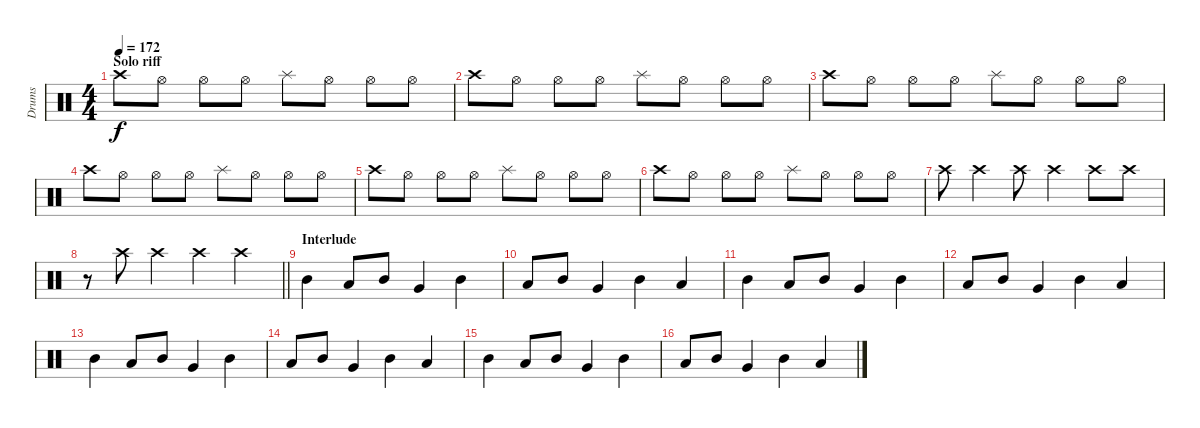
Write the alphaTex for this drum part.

\track ("Drums" "Drums") {instrument percussion}
\staff {score}
\articulation defaults
\ts (4 4)
\section ("" "Solo riff")
\tempo 172
\clef neutral
\ks c "Crash high (hit)".8{dy f} "Hi-Hat (open)".8 "Hi-Hat (open)".8 "Hi-Hat (open)".8 "Splash (hit)".8 "Hi-Hat (open)".8 "Hi-Hat (open)".8 "Hi-Hat (open)".8
|
"Crash high (hit)".8 "Hi-Hat (open)".8 "Hi-Hat (open)".8 "Hi-Hat (open)".8 "Splash (hit)".8 "Hi-Hat (open)".8 "Hi-Hat (open)".8 "Hi-Hat (open)".8 |
"Crash high (hit)".8 "Hi-Hat (open)".8 "Hi-Hat (open)".8 "Hi-Hat (open)".8 "Splash (hit)".8 "Hi-Hat (open)".8 "Hi-Hat (open)".8 "Hi-Hat (open)".8 |
"Crash high (hit)".8 "Hi-Hat (open)".8 "Hi-Hat (open)".8 "Hi-Hat (open)".8 "Splash (hit)".8 "Hi-Hat (open)".8 "Hi-Hat (open)".8 "Hi-Hat (open)".8 |
"Crash high (hit)".8 "Hi-Hat (open)".8 "Hi-Hat (open)".8 "Hi-Hat (open)".8 "Splash (hit)".8 "Hi-Hat (open)".8 "Hi-Hat (open)".8 "Hi-Hat (open)".8 |
"Crash high (hit)".8 "Hi-Hat (open)".8 "Hi-Hat (open)".8 "Hi-Hat (open)".8 "Splash (hit)".8 "Hi-Hat (open)".8 "Hi-Hat (open)".8 "Hi-Hat (open)".8 |
"Crash high (hit)".8 "Crash high (hit)".4 "Crash high (hit)".8 "Crash high (hit)".4 "Crash high (hit)".8 "Crash high (hit)".8 |
\barLineRight lightlight
r.8 "Crash high (hit)".8 "Crash high (hit)".4 "Crash high (hit)".4 "Crash high (hit)".4 |
\section ("" "Interlude")
"Mid Tom (hit)".4 "Low Tom (hit)".8 "Mid Tom (hit)".8 "Very Low Tom (hit)".4 "Mid Tom (hit)".4 |
"Low Tom (hit)".8 "Mid Tom (hit)".8 "Very Low Tom (hit)".4 "Mid Tom (hit)".4 "Low Tom (hit)".4 |
"Mid Tom (hit)".4 "Low Tom (hit)".8 "Mid Tom (hit)".8 "Very Low Tom (hit)".4 "Mid Tom (hit)".4 |
"Low Tom (hit)".8 "Mid Tom (hit)".8 "Very Low Tom (hit)".4 "Mid Tom (hit)".4 "Low Tom (hit)".4 |
"Mid Tom (hit)".4 "Low Tom (hit)".8 "Mid Tom (hit)".8 "Very Low Tom (hit)".4 "Mid Tom (hit)".4 |
"Low Tom (hit)".8 "Mid Tom (hit)".8 "Very Low Tom (hit)".4 "Mid Tom (hit)".4 "Low Tom (hit)".4 |
"Mid Tom (hit)".4 "Low Tom (hit)".8 "Mid Tom (hit)".8 "Very Low Tom (hit)".4 "Mid Tom (hit)".4 |
"Low Tom (hit)".8 "Mid Tom (hit)".8 "Very Low Tom (hit)".4 "Mid Tom (hit)".4 "Low Tom (hit)".4
